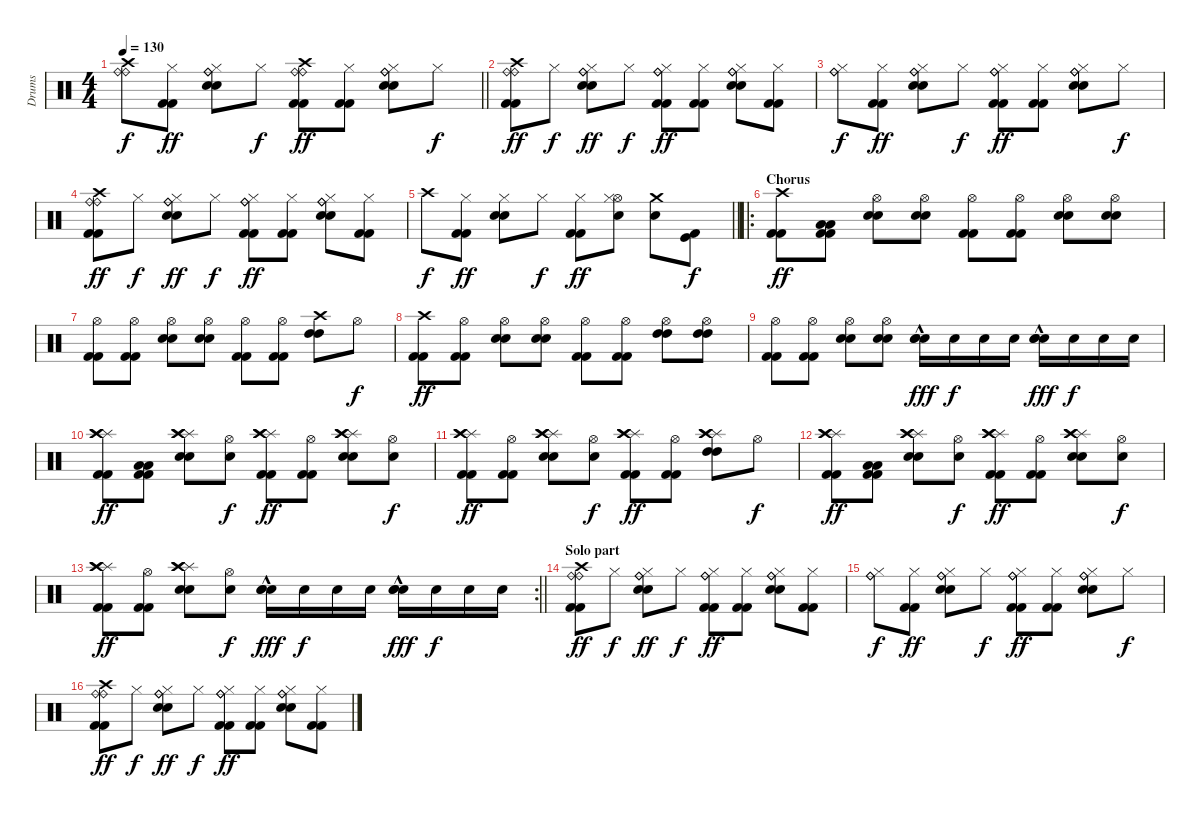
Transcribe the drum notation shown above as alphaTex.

\track ("Drums" "Drums") {instrument percussion}
\staff {score}
\articulation defaults
\ts (4 4)
\tempo 130
\clef neutral
\barLineRight lightlight
\ks c
("Ride (bell)" "Ride (bell)" "Crash high (hit)").8{dy f} ("Kick (hit) 2" "Kick (hit) 2" "Hi-Hat (closed)").8{dy ff} ("Electric Snare (hit)" "Electric Snare (hit)" "Ride (bell)" "Ride (bell)" "Hi-Hat (closed)").8 "Hi-Hat (closed)".8{dy f} ("Kick (hit) 2" "Kick (hit) 2" "Ride (bell)" "Ride (bell)" "Crash high (hit)").8{dy ff} ("Kick (hit) 2" "Kick (hit) 2" "Hi-Hat (closed)").8 ("Electric Snare (hit)" "Electric Snare (hit)" "Ride (bell)" "Ride (bell)" "Hi-Hat (closed)").8 "Hi-Hat (closed)".8{dy f} |
("Kick (hit) 2" "Kick (hit) 2" "Ride (bell)" "Ride (bell)" "Crash high (hit)").8{dy ff} "Hi-Hat (closed)".8{dy f} ("Electric Snare (hit)" "Electric Snare (hit)" "Ride (bell)" "Ride (bell)" "Hi-Hat (closed)").8{dy ff} "Hi-Hat (closed)".8{dy f} ("Kick (hit) 2" "Kick (hit) 2" "Ride (bell)" "Ride (bell)" "Hi-Hat (closed)").8{dy ff} ("Kick (hit) 2" "Kick (hit) 2" "Hi-Hat (closed)").8 ("Electric Snare (hit)" "Electric Snare (hit)" "Ride (bell)" "Ride (bell)" "Hi-Hat (closed)").8 ("Kick (hit) 2" "Kick (hit) 2" "Hi-Hat (closed)").8 |
("Ride (bell)" "Ride (bell)" "Hi-Hat (closed)").8{dy f} ("Kick (hit) 2" "Kick (hit) 2" "Hi-Hat (closed)").8{dy ff} ("Electric Snare (hit)" "Electric Snare (hit)" "Ride (bell)" "Ride (bell)" "Hi-Hat (closed)").8 "Hi-Hat (closed)".8{dy f} ("Kick (hit) 2" "Kick (hit) 2" "Ride (bell)" "Ride (bell)" "Hi-Hat (closed)").8{dy ff} ("Kick (hit) 2" "Kick (hit) 2" "Hi-Hat (closed)").8 ("Electric Snare (hit)" "Electric Snare (hit)" "Ride (bell)" "Ride (bell)" "Hi-Hat (closed)").8 "Hi-Hat (closed)".8{dy f} |
("Kick (hit) 2" "Kick (hit) 2" "Ride (bell)" "Ride (bell)" "Crash high (hit)").8{dy ff} "Hi-Hat (closed)".8{dy f} ("Electric Snare (hit)" "Electric Snare (hit)" "Ride (bell)" "Ride (bell)" "Hi-Hat (closed)").8{dy ff} "Hi-Hat (closed)".8{dy f} ("Kick (hit) 2" "Kick (hit) 2" "Ride (bell)" "Ride (bell)" "Hi-Hat (closed)").8{dy ff} ("Kick (hit) 2" "Kick (hit) 2" "Hi-Hat (closed)").8 ("Electric Snare (hit)" "Electric Snare (hit)" "Ride (bell)" "Ride (bell)" "Hi-Hat (closed)").8 ("Kick (hit) 2" "Kick (hit) 2" "Hi-Hat (closed)").8 |
\barLineRight lightlight "Crash high (hit)".8{dy f}
("Kick (hit) 2" "Kick (hit) 2" "Hi-Hat (closed)").8{dy ff} ("Electric Snare (hit)" "Electric Snare (hit)" "Hi-Hat (closed)").8 "Hi-Hat (closed)".8{dy f} ("Kick (hit) 2" "Kick (hit) 2" "Hi-Hat (closed)").8{dy ff} ("Hi-Hat (open)" "Electric Snare (hit)" "Hi-Hat (closed)").8 ("Crash medium (hit)" "Electric Snare (hit)").8 ("Kick (hit) 2" "Kick (hit)").8{dy f} |
\ro
\section ("" "Chorus")
("Kick (hit) 2" "Kick (hit) 2" "Crash high (hit)").8{dy ff} ("Kick (hit) 2" "Kick (hit) 2" "Low Tom (hit)" "Low Tom (hit)").8 ("Electric Snare (hit)" "Electric Snare (hit)" "Hi-Hat (open)").8 ("Electric Snare (hit)" "Electric Snare (hit)" "Hi-Hat (open)").8 ("Kick (hit) 2" "Kick (hit) 2" "Hi-Hat (open)").8 ("Kick (hit) 2" "Kick (hit) 2" "Hi-Hat (open)").8 ("Electric Snare (hit)" "Electric Snare (hit)" "Hi-Hat (open)").8 ("Electric Snare (hit)" "Electric Snare (hit)" "Hi-Hat (open)").8 |
("Kick (hit) 2" "Kick (hit) 2" "Hi-Hat (open)").8 ("Kick (hit) 2" "Kick (hit) 2" "Hi-Hat (open)").8 ("Electric Snare (hit)" "Electric Snare (hit)" "Hi-Hat (open)").8 ("Electric Snare (hit)" "Electric Snare (hit)" "Hi-Hat (open)").8 ("Kick (hit) 2" "Kick (hit) 2" "Hi-Hat (open)").8 ("Kick (hit) 2" "Kick (hit) 2" "Hi-Hat (open)").8 ("High Tom (hit)" "High Tom (hit)" "Crash high (hit)").8 "Hi-Hat (open)".8{dy f} |
("Kick (hit) 2" "Kick (hit) 2" "Crash high (hit)").8{dy ff} ("Kick (hit) 2" "Kick (hit) 2" "Hi-Hat (open)").8 ("Electric Snare (hit)" "Electric Snare (hit)" "Hi-Hat (open)").8 ("Electric Snare (hit)" "Electric Snare (hit)" "Hi-Hat (open)").8 ("Kick (hit) 2" "Kick (hit) 2" "Hi-Hat (open)").8 ("Kick (hit) 2" "Kick (hit) 2" "Hi-Hat (open)").8 ("High Tom (hit)" "High Tom (hit)" "Hi-Hat (open)").8 ("High Tom (hit)" "High Tom (hit)" "Hi-Hat (open)").8 |
("Kick (hit) 2" "Kick (hit) 2" "Hi-Hat (open)").8 ("Kick (hit) 2" "Kick (hit) 2" "Hi-Hat (open)").8 ("Electric Snare (hit)" "Electric Snare (hit)" "Hi-Hat (open)").8 ("Electric Snare (hit)" "Electric Snare (hit)" "Hi-Hat (open)").8 ("Snare (hit) 2"{hac} "Electric Snare (hit)"{hac} "Snare (hit) 2"{hac}).16{dy fff} "Electric Snare (hit)".16{dy f} "Electric Snare (hit)".16 "Electric Snare (hit)".16 ("Snare (hit) 2"{hac} "Electric Snare (hit)"{hac} "Snare (hit) 2"{hac}).16{dy fff} "Electric Snare (hit)".16{dy f} "Electric Snare (hit)".16 "Electric Snare (hit)".16 |
("Kick (hit) 2" "Kick (hit) 2" "Splash (hit)" "Crash high (hit)" "Crash high (hit)").8{dy ff} ("Kick (hit) 2" "Kick (hit) 2" "Low Tom (hit)" "Low Tom (hit)").8 ("Electric Snare (hit)" "Electric Snare (hit)" "Splash (hit)" "Crash high (hit)" "Crash high (hit)").8 ("Electric Snare (hit)" "Hi-Hat (open)").8{dy f} ("Kick (hit) 2" "Kick (hit) 2" "Splash (hit)" "Crash high (hit)" "Crash high (hit)").8{dy ff} ("Kick (hit) 2" "Kick (hit) 2" "Hi-Hat (open)").8 ("Electric Snare (hit)" "Electric Snare (hit)" "Splash (hit)" "Crash high (hit)" "Crash high (hit)").8 ("Electric Snare (hit)" "Hi-Hat (open)").8{dy f} |
("Kick (hit) 2" "Kick (hit) 2" "Splash (hit)" "Crash high (hit)" "Crash high (hit)").8{dy ff} ("Kick (hit) 2" "Kick (hit) 2" "Hi-Hat (open)").8 ("Electric Snare (hit)" "Electric Snare (hit)" "Splash (hit)" "Crash high (hit)" "Crash high (hit)").8 ("Electric Snare (hit)" "Hi-Hat (open)").8{dy f} ("Kick (hit) 2" "Kick (hit) 2" "Splash (hit)" "Crash high (hit)" "Crash high (hit)").8{dy ff} ("Kick (hit) 2" "Kick (hit) 2" "Hi-Hat (open)").8 ("High Tom (hit)" "High Tom (hit)" "Splash (hit)" "Crash high (hit)" "Crash high (hit)").8 "Hi-Hat (open)".8{dy f} |
("Kick (hit) 2" "Kick (hit) 2" "Splash (hit)" "Crash high (hit)" "Crash high (hit)").8{dy ff} ("Kick (hit) 2" "Kick (hit) 2" "Low Tom (hit)" "Low Tom (hit)").8 ("Electric Snare (hit)" "Electric Snare (hit)" "Splash (hit)" "Crash high (hit)" "Crash high (hit)").8 ("Electric Snare (hit)" "Hi-Hat (open)").8{dy f} ("Kick (hit) 2" "Kick (hit) 2" "Splash (hit)" "Crash high (hit)" "Crash high (hit)").8{dy ff} ("Kick (hit) 2" "Kick (hit) 2" "Hi-Hat (open)").8 ("Electric Snare (hit)" "Electric Snare (hit)" "Splash (hit)" "Crash high (hit)" "Crash high (hit)").8 ("Electric Snare (hit)" "Hi-Hat (open)").8{dy f} |
\rc 2
\barLineRight lightlight
("Kick (hit) 2" "Kick (hit) 2" "Splash (hit)" "Crash high (hit)" "Crash high (hit)").8{dy ff} ("Kick (hit) 2" "Kick (hit) 2" "Hi-Hat (open)").8 ("Electric Snare (hit)" "Electric Snare (hit)" "Splash (hit)" "Crash high (hit)" "Crash high (hit)").8 ("Electric Snare (hit)" "Hi-Hat (open)").8{dy f} ("Snare (hit) 2"{hac} "Electric Snare (hit)"{hac} "Snare (hit) 2"{hac}).16{dy fff} "Electric Snare (hit)".16{dy f} "Electric Snare (hit)".16 "Electric Snare (hit)".16 ("Snare (hit) 2"{hac} "Electric Snare (hit)"{hac} "Snare (hit) 2"{hac}).16{dy fff} "Electric Snare (hit)".16{dy f} "Electric Snare (hit)".16 "Electric Snare (hit)".16 |
\section ("" "Solo part")
("Kick (hit) 2" "Kick (hit) 2" "Ride (bell)" "Ride (bell)" "Crash high (hit)").8{dy ff} "Hi-Hat (closed)".8{dy f} ("Electric Snare (hit)" "Electric Snare (hit)" "Ride (bell)" "Ride (bell)" "Hi-Hat (closed)").8{dy ff} "Hi-Hat (closed)".8{dy f} ("Kick (hit) 2" "Kick (hit) 2" "Ride (bell)" "Ride (bell)" "Hi-Hat (closed)").8{dy ff} ("Kick (hit) 2" "Kick (hit) 2" "Hi-Hat (closed)").8 ("Electric Snare (hit)" "Electric Snare (hit)" "Ride (bell)" "Ride (bell)" "Hi-Hat (closed)").8 ("Kick (hit) 2" "Kick (hit) 2" "Hi-Hat (closed)").8 |
("Ride (bell)" "Ride (bell)" "Hi-Hat (closed)").8{dy f} ("Kick (hit) 2" "Kick (hit) 2" "Hi-Hat (closed)").8{dy ff} ("Electric Snare (hit)" "Electric Snare (hit)" "Ride (bell)" "Ride (bell)" "Hi-Hat (closed)").8 "Hi-Hat (closed)".8{dy f} ("Kick (hit) 2" "Kick (hit) 2" "Ride (bell)" "Ride (bell)" "Hi-Hat (closed)").8{dy ff} ("Kick (hit) 2" "Kick (hit) 2" "Hi-Hat (closed)").8 ("Electric Snare (hit)" "Electric Snare (hit)" "Ride (bell)" "Ride (bell)" "Hi-Hat (closed)").8 "Hi-Hat (closed)".8{dy f} |
("Kick (hit) 2" "Kick (hit) 2" "Ride (bell)" "Ride (bell)" "Crash high (hit)").8{dy ff} "Hi-Hat (closed)".8{dy f} ("Electric Snare (hit)" "Electric Snare (hit)" "Ride (bell)" "Ride (bell)" "Hi-Hat (closed)").8{dy ff} "Hi-Hat (closed)".8{dy f} ("Kick (hit) 2" "Kick (hit) 2" "Ride (bell)" "Ride (bell)" "Hi-Hat (closed)").8{dy ff} ("Kick (hit) 2" "Kick (hit) 2" "Hi-Hat (closed)").8 ("Electric Snare (hit)" "Electric Snare (hit)" "Ride (bell)" "Ride (bell)" "Hi-Hat (closed)").8 ("Kick (hit) 2" "Kick (hit) 2" "Hi-Hat (closed)").8
